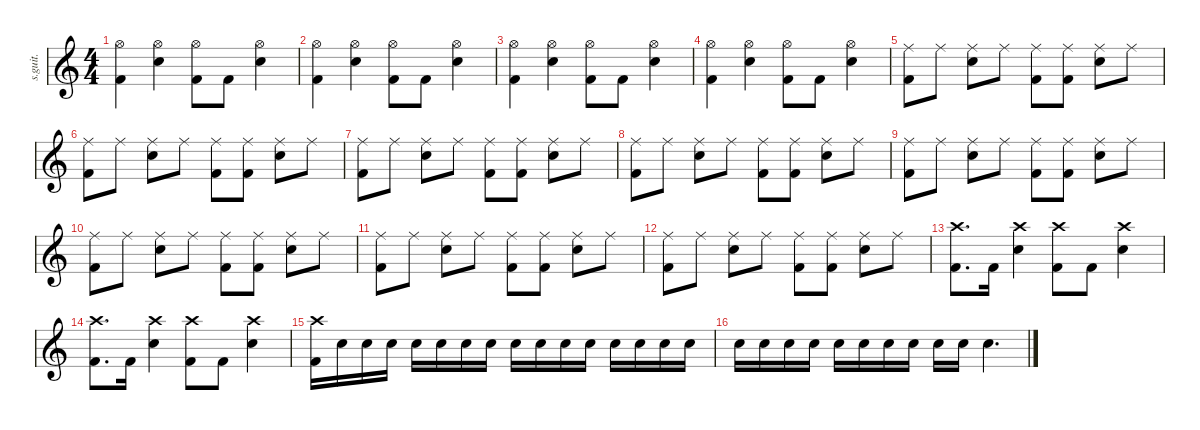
\defaultSystemsLayout 4
\hideDynamics
\bracketExtendMode nobrackets
\track ("" "s.guit.") {instrument percussion}
\staff {score}
\articulation defaults
\ts (4 4)
\tempo (180 hide)
\clef g2
\ks c
("Kick (hit) 2" "Hi-Hat (open)").4{dy f} ("Snare (hit) 2" "Hi-Hat (open)").4 ("Kick (hit) 2" "Hi-Hat (open)").8 "Kick (hit) 2".8 ("Snare (hit) 2" "Hi-Hat (open)").4 |
("Kick (hit) 2" "Hi-Hat (open)").4 ("Snare (hit) 2" "Hi-Hat (open)").4 ("Kick (hit) 2" "Hi-Hat (open)").8 "Kick (hit) 2".8 ("Snare (hit) 2" "Hi-Hat (open)").4 |
("Kick (hit) 2" "Hi-Hat (open)").4 ("Snare (hit) 2" "Hi-Hat (open)").4 ("Kick (hit) 2" "Hi-Hat (open)").8 "Kick (hit) 2".8 ("Snare (hit) 2" "Hi-Hat (open)").4 |
("Kick (hit) 2" "Hi-Hat (open)").4 ("Snare (hit) 2" "Hi-Hat (open)").4 ("Kick (hit) 2" "Hi-Hat (open)").8 "Kick (hit) 2".8 ("Snare (hit) 2" "Hi-Hat (open)").4 |
("Kick (hit) 2" "Ride (middle)").8 "Ride (middle)".8 ("Snare (hit) 2" "Ride (middle)").8 "Ride (middle)".8 ("Kick (hit) 2" "Ride (middle)").8 ("Kick (hit) 2" "Ride (middle)").8 ("Snare (hit) 2" "Ride (middle)").8 "Ride (middle)".8 |
("Kick (hit) 2" "Ride (middle)").8 "Ride (middle)".8 ("Snare (hit) 2" "Ride (middle)").8 "Ride (middle)".8 ("Kick (hit) 2" "Ride (middle)").8 ("Kick (hit) 2" "Ride (middle)").8 ("Snare (hit) 2" "Ride (middle)").8 "Ride (middle)".8 |
("Kick (hit) 2" "Ride (middle)").8 "Ride (middle)".8 ("Snare (hit) 2" "Ride (middle)").8 "Ride (middle)".8 ("Kick (hit) 2" "Ride (middle)").8 ("Kick (hit) 2" "Ride (middle)").8 ("Snare (hit) 2" "Ride (middle)").8 "Ride (middle)".8 |
("Kick (hit) 2" "Ride (middle)").8 "Ride (middle)".8 ("Snare (hit) 2" "Ride (middle)").8 "Ride (middle)".8 ("Kick (hit) 2" "Ride (middle)").8 ("Kick (hit) 2" "Ride (middle)").8 ("Snare (hit) 2" "Ride (middle)").8 "Ride (middle)".8 |
("Kick (hit) 2" "Ride (middle)").8 "Ride (middle)".8 ("Snare (hit) 2" "Ride (middle)").8 "Ride (middle)".8 ("Kick (hit) 2" "Ride (middle)").8 ("Kick (hit) 2" "Ride (middle)").8 ("Snare (hit) 2" "Ride (middle)").8 "Ride (middle)".8 |
("Kick (hit) 2" "Ride (middle)").8 "Ride (middle)".8 ("Snare (hit) 2" "Ride (middle)").8 "Ride (middle)".8 ("Kick (hit) 2" "Ride (middle)").8 ("Kick (hit) 2" "Ride (middle)").8 ("Snare (hit) 2" "Ride (middle)").8 "Ride (middle)".8 |
("Kick (hit) 2" "Ride (middle)").8 "Ride (middle)".8 ("Snare (hit) 2" "Ride (middle)").8 "Ride (middle)".8 ("Kick (hit) 2" "Ride (middle)").8 ("Kick (hit) 2" "Ride (middle)").8 ("Snare (hit) 2" "Ride (middle)").8 "Ride (middle)".8 |
("Kick (hit) 2" "Ride (middle)").8 "Ride (middle)".8 ("Snare (hit) 2" "Ride (middle)").8 "Ride (middle)".8 ("Kick (hit) 2" "Ride (middle)").8 ("Kick (hit) 2" "Ride (middle)").8 ("Snare (hit) 2" "Ride (middle)").8 "Ride (middle)".8 |
("Kick (hit) 2" "Crash high (hit)").8{d} "Kick (hit) 2".16 ("Snare (hit) 2" "Crash high (hit)").4 ("Kick (hit) 2" "Crash high (hit)").8 "Kick (hit) 2".8 ("Snare (hit) 2" "Crash high (hit)").4 |
("Kick (hit) 2" "Crash high (hit)").8{d} "Kick (hit) 2".16 ("Snare (hit) 2" "Crash high (hit)").4 ("Kick (hit) 2" "Crash high (hit)").8 "Kick (hit) 2".8 ("Snare (hit) 2" "Crash high (hit)").4 |
("Kick (hit) 2" "Crash high (hit)").16 "Snare (hit) 2".16 "Snare (hit) 2".16 "Snare (hit) 2".16 "Snare (hit) 2".16 "Snare (hit) 2".16 "Snare (hit) 2".16 "Snare (hit) 2".16 "Snare (hit) 2".16 "Snare (hit) 2".16 "Snare (hit) 2".16 "Snare (hit) 2".16 "Snare (hit) 2".16 "Snare (hit) 2".16 "Snare (hit) 2".16 "Snare (hit) 2".16 |
"Snare (hit) 2".16 "Snare (hit) 2".16 "Snare (hit) 2".16 "Snare (hit) 2".16 "Snare (hit) 2".16 "Snare (hit) 2".16 "Snare (hit) 2".16 "Snare (hit) 2".16 "Snare (hit) 2".16 "Snare (hit) 2".16 "Snare (hit) 2".4{d}
